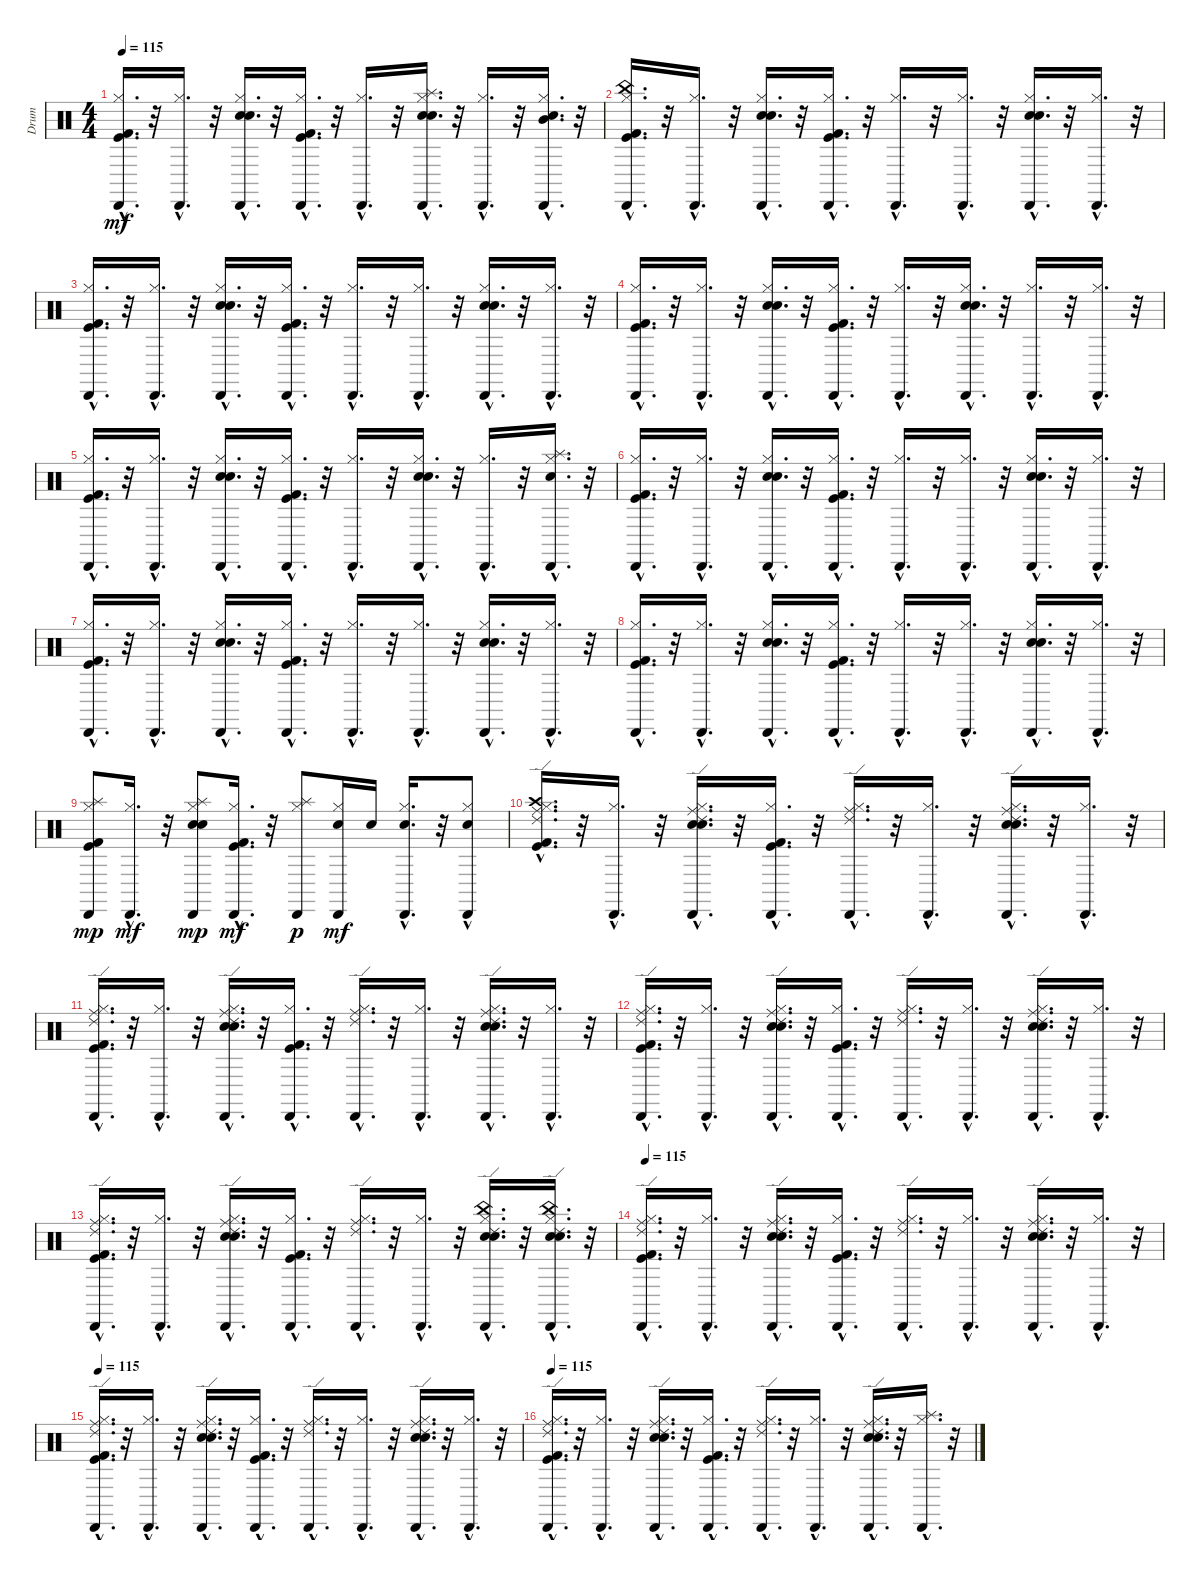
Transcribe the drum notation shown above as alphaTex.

\track ("Drum" "Drum") {instrument percussion}
\staff {score}
\articulation defaults
\ts (4 4)
\tempo 115
\clef neutral
\ks c
("Cabasa (hit)"{hac} "Kick (hit) 2"{hac} "Kick (hit)"{hac} "Hi-Hat (closed)"{hac}).16{d dy mf} r.32 ("Cabasa (hit)"{hac} "Hi-Hat (closed)"{hac}).16{d} r.32 ("Cabasa (hit)"{hac} "Electric Snare (hit)"{hac} "Snare (hit) 2"{hac} "Hi-Hat (closed)"{hac}).16{d} r.32 ("Cabasa (hit)"{hac} "Kick (hit) 2"{hac} "Kick (hit)"{hac} "Hi-Hat (closed)"{hac}).16{d} r.32 ("Cabasa (hit)"{hac} "Hi-Hat (closed)"{hac}).16{d} r.32 ("Splash (hit)"{hac} "Cabasa (hit)"{hac} "Electric Snare (hit)"{hac} "Snare (hit) 2"{hac} "Hi-Hat (closed)"{hac}).16{d} r.32 ("Cabasa (hit)"{hac} "Hi-Hat (closed)"{hac}).16{d} r.32 ("Mid Tom (hit)"{hac} "Cabasa (hit)"{hac} "Hi-Hat (closed)"{hac} "Snare (hit) 2"{hac}).16{d} r.32 |
("China (hit)"{hac} "Hi-Hat (closed)"{hac} "Kick (hit)"{hac} "Kick (hit) 2"{hac} "Cabasa (hit)"{hac}).16{d} r.32 ("Hi-Hat (closed)"{hac} "Cabasa (hit)"{hac}).16{d} r.32 ("Hi-Hat (closed)"{hac} "Snare (hit) 2"{hac} "Electric Snare (hit)"{hac} "Cabasa (hit)"{hac}).16{d} r.32 ("Hi-Hat (closed)"{hac} "Kick (hit)"{hac} "Kick (hit) 2"{hac} "Cabasa (hit)"{hac}).16{d} r.32 ("Hi-Hat (closed)"{hac} "Cabasa (hit)"{hac}).16{d} r.32 ("Hi-Hat (closed)"{hac} "Cabasa (hit)"{hac}).16{d} r.32 ("Snare (hit) 2"{hac} "Electric Snare (hit)"{hac} "Hi-Hat (closed)"{hac} "Cabasa (hit)"{hac}).16{d} r.32 ("Hi-Hat (closed)"{hac} "Cabasa (hit)"{hac}).16{d} r.32 |
("Cabasa (hit)"{hac} "Kick (hit) 2"{hac} "Kick (hit)"{hac} "Hi-Hat (closed)"{hac}).16{d} r.32 ("Cabasa (hit)"{hac} "Hi-Hat (closed)"{hac}).16{d} r.32 ("Cabasa (hit)"{hac} "Electric Snare (hit)"{hac} "Snare (hit) 2"{hac} "Hi-Hat (closed)"{hac}).16{d} r.32 ("Cabasa (hit)"{hac} "Kick (hit) 2"{hac} "Kick (hit)"{hac} "Hi-Hat (closed)"{hac}).16{d} r.32 ("Cabasa (hit)"{hac} "Hi-Hat (closed)"{hac}).16{d} r.32 ("Cabasa (hit)"{hac} "Hi-Hat (closed)"{hac}).16{d} r.32 ("Snare (hit) 2"{hac} "Electric Snare (hit)"{hac} "Cabasa (hit)"{hac} "Hi-Hat (closed)"{hac}).16{d} r.32 ("Cabasa (hit)"{hac} "Hi-Hat (closed)"{hac}).16{d} r.32 |
("Cabasa (hit)"{hac} "Kick (hit) 2"{hac} "Kick (hit)"{hac} "Hi-Hat (closed)"{hac}).16{d} r.32 ("Cabasa (hit)"{hac} "Hi-Hat (closed)"{hac}).16{d} r.32 ("Cabasa (hit)"{hac} "Electric Snare (hit)"{hac} "Snare (hit) 2"{hac} "Hi-Hat (closed)"{hac}).16{d} r.32 ("Cabasa (hit)"{hac} "Kick (hit) 2"{hac} "Kick (hit)"{hac} "Hi-Hat (closed)"{hac}).16{d} r.32 ("Cabasa (hit)"{hac} "Hi-Hat (closed)"{hac}).16{d} r.32 ("Cabasa (hit)"{hac} "Electric Snare (hit)"{hac} "Snare (hit) 2"{hac} "Hi-Hat (closed)"{hac}).16{d} r.32 ("Cabasa (hit)"{hac} "Hi-Hat (closed)"{hac}).16{d} r.32 ("Cabasa (hit)"{hac} "Hi-Hat (closed)"{hac}).16{d} r.32 |
("Cabasa (hit)"{hac} "Kick (hit) 2"{hac} "Kick (hit)"{hac} "Hi-Hat (closed)"{hac}).16{d} r.32 ("Cabasa (hit)"{hac} "Hi-Hat (closed)"{hac}).16{d} r.32 ("Cabasa (hit)"{hac} "Electric Snare (hit)"{hac} "Snare (hit) 2"{hac} "Hi-Hat (closed)"{hac}).16{d} r.32 ("Cabasa (hit)"{hac} "Kick (hit) 2"{hac} "Kick (hit)"{hac} "Hi-Hat (closed)"{hac}).16{d} r.32 ("Cabasa (hit)"{hac} "Hi-Hat (closed)"{hac}).16{d} r.32 ("Cabasa (hit)"{hac} "Electric Snare (hit)"{hac} "Snare (hit) 2"{hac} "Hi-Hat (closed)"{hac}).16{d} r.32 ("Cabasa (hit)"{hac} "Hi-Hat (closed)"{hac}).16{d} r.32 ("Splash (hit)"{hac} "Cabasa (hit)"{hac} "Hi-Hat (closed)"{hac} "Snare (hit) 2"{hac}).16{d} r.32 |
("Kick (hit) 2"{hac} "Kick (hit)"{hac} "Cabasa (hit)"{hac} "Hi-Hat (closed)"{hac}).16{d} r.32 ("Hi-Hat (closed)"{hac} "Cabasa (hit)"{hac}).16{d} r.32 ("Snare (hit) 2"{hac} "Hi-Hat (closed)"{hac} "Cabasa (hit)"{hac} "Electric Snare (hit)"{hac}).16{d} r.32 ("Cabasa (hit)"{hac} "Kick (hit) 2"{hac} "Hi-Hat (closed)"{hac} "Kick (hit)"{hac}).16{d} r.32 ("Cabasa (hit)"{hac} "Hi-Hat (closed)"{hac}).16{d} r.32 ("Hi-Hat (closed)"{hac} "Cabasa (hit)"{hac}).16{d} r.32 ("Snare (hit) 2"{hac} "Hi-Hat (closed)"{hac} "Cabasa (hit)"{hac} "Electric Snare (hit)"{hac}).16{d} r.32 ("Cabasa (hit)"{hac} "Hi-Hat (closed)"{hac}).16{d} r.32 |
("Hi-Hat (closed)"{hac} "Kick (hit)"{hac} "Kick (hit) 2"{hac} "Cabasa (hit)"{hac}).16{d} r.32 ("Hi-Hat (closed)"{hac} "Cabasa (hit)"{hac}).16{d} r.32 ("Hi-Hat (closed)"{hac} "Snare (hit) 2"{hac} "Electric Snare (hit)"{hac} "Cabasa (hit)"{hac}).16{d} r.32 ("Hi-Hat (closed)"{hac} "Kick (hit)"{hac} "Kick (hit) 2"{hac} "Cabasa (hit)"{hac}).16{d} r.32 ("Hi-Hat (closed)"{hac} "Cabasa (hit)"{hac}).16{d} r.32 ("Hi-Hat (closed)"{hac} "Cabasa (hit)"{hac}).16{d} r.32 ("Hi-Hat (closed)"{hac} "Cabasa (hit)"{hac} "Electric Snare (hit)"{hac} "Snare (hit) 2"{hac}).16{d} r.32 ("Hi-Hat (closed)"{hac} "Cabasa (hit)"{hac}).16{d} r.32 |
("Cabasa (hit)"{hac} "Kick (hit)"{hac} "Hi-Hat (closed)"{hac} "Kick (hit) 2"{hac}).16{d} r.32 ("Cabasa (hit)"{hac} "Hi-Hat (closed)"{hac}).16{d} r.32 ("Hi-Hat (closed)"{hac} "Snare (hit) 2"{hac} "Cabasa (hit)"{hac} "Electric Snare (hit)"{hac}).16{d} r.32 ("Kick (hit) 2"{hac} "Cabasa (hit)"{hac} "Hi-Hat (closed)"{hac} "Kick (hit)"{hac}).16{d} r.32 ("Hi-Hat (closed)"{hac} "Cabasa (hit)"{hac}).16{d} r.32 ("Hi-Hat (closed)"{hac} "Cabasa (hit)"{hac}).16{d} r.32 ("Snare (hit) 2"{hac} "Hi-Hat (closed)"{hac} "Electric Snare (hit)"{hac} "Cabasa (hit)"{hac}).16{d} r.32 ("Cabasa (hit)"{hac} "Hi-Hat (closed)"{hac}).16{d} r.32 |
("Splash (hit)" "Kick (hit)" "Cabasa (hit)" "Hi-Hat (closed)" "Kick (hit) 2").8{dy mp} ("Hi-Hat (closed)"{hac} "Cabasa (hit)"{hac}).16{d dy mf} r.32 ("Splash (hit)" "Electric Snare (hit)" "Cabasa (hit)" "Hi-Hat (closed)" "Snare (hit) 2").8{dy mp} ("Hi-Hat (closed)"{hac} "Cabasa (hit)"{hac} "Kick (hit)"{hac} "Kick (hit) 2"{hac}).16{d dy mf} r.32 ("Hi-Hat (closed)" "Cabasa (hit)" "Splash (hit)").8{dy p} ("Snare (hit) 2" "Hi-Hat (closed)" "Cabasa (hit)").16{dy mf} "Snare (hit) 2".16 ("Snare (hit) 2"{hac} "Cabasa (hit)"{hac} "Hi-Hat (closed)"{hac}).16{d} r.32 ("Hi-Hat (closed)"{hac} "Snare (hit) 2"{hac} "Cabasa (hit)"{hac}).8 |
("Ride (middle)"{hac} "Ride (edge) 2"{hac} "Crash high (hit)"{hac} "Hi-Hat (closed)"{hac} "Kick (hit)"{hac} "Kick (hit) 2"{hac}).16{d} r.32 ("Hi-Hat (closed)"{hac} "Cabasa (hit)"{hac}).16{d} r.32 ("Ride (middle)"{hac} "Ride (edge) 2"{hac} "Hi-Hat (closed)"{hac} "Snare (hit) 2"{hac} "Electric Snare (hit)"{hac} "Cabasa (hit)"{hac}).16{d} r.32 ("Hi-Hat (closed)"{hac} "Kick (hit)"{hac} "Kick (hit) 2"{hac} "Cabasa (hit)"{hac}).16{d} r.32 ("Ride (middle)"{hac} "Ride (edge) 2"{hac} "Hi-Hat (closed)"{hac} "Cabasa (hit)"{hac}).16{d} r.32 ("Hi-Hat (closed)"{hac} "Cabasa (hit)"{hac}).16{d} r.32 ("Ride (middle)"{hac} "Ride (edge) 2"{hac} "Snare (hit) 2"{hac} "Electric Snare (hit)"{hac} "Hi-Hat (closed)"{hac} "Cabasa (hit)"{hac}).16{d} r.32 ("Hi-Hat (closed)"{hac} "Cabasa (hit)"{hac}).16{d} r.32 |
("Cabasa (hit)"{hac} "Kick (hit) 2"{hac} "Kick (hit)"{hac} "Hi-Hat (closed)"{hac} "Ride (edge) 2"{hac} "Ride (middle)"{hac}).16{d} r.32 ("Cabasa (hit)"{hac} "Hi-Hat (closed)"{hac}).16{d} r.32 ("Cabasa (hit)"{hac} "Electric Snare (hit)"{hac} "Snare (hit) 2"{hac} "Hi-Hat (closed)"{hac} "Ride (edge) 2"{hac} "Ride (middle)"{hac}).16{d} r.32 ("Cabasa (hit)"{hac} "Kick (hit) 2"{hac} "Kick (hit)"{hac} "Hi-Hat (closed)"{hac}).16{d} r.32 ("Cabasa (hit)"{hac} "Hi-Hat (closed)"{hac} "Ride (edge) 2"{hac} "Ride (middle)"{hac}).16{d} r.32 ("Cabasa (hit)"{hac} "Hi-Hat (closed)"{hac}).16{d} r.32 ("Cabasa (hit)"{hac} "Hi-Hat (closed)"{hac} "Electric Snare (hit)"{hac} "Snare (hit) 2"{hac} "Ride (edge) 2"{hac} "Ride (middle)"{hac}).16{d} r.32 ("Cabasa (hit)"{hac} "Hi-Hat (closed)"{hac}).16{d} r.32 |
("Ride (middle)"{hac} "Ride (edge) 2"{hac} "Hi-Hat (closed)"{hac} "Kick (hit)"{hac} "Kick (hit) 2"{hac} "Cabasa (hit)"{hac}).16{d} r.32 ("Hi-Hat (closed)"{hac} "Cabasa (hit)"{hac}).16{d} r.32 ("Ride (middle)"{hac} "Ride (edge) 2"{hac} "Hi-Hat (closed)"{hac} "Snare (hit) 2"{hac} "Electric Snare (hit)"{hac} "Cabasa (hit)"{hac}).16{d} r.32 ("Hi-Hat (closed)"{hac} "Kick (hit)"{hac} "Kick (hit) 2"{hac} "Cabasa (hit)"{hac}).16{d} r.32 ("Ride (middle)"{hac} "Ride (edge) 2"{hac} "Hi-Hat (closed)"{hac} "Cabasa (hit)"{hac}).16{d} r.32 ("Hi-Hat (closed)"{hac} "Cabasa (hit)"{hac}).16{d} r.32 ("Ride (middle)"{hac} "Ride (edge) 2"{hac} "Snare (hit) 2"{hac} "Electric Snare (hit)"{hac} "Hi-Hat (closed)"{hac} "Cabasa (hit)"{hac}).16{d} r.32 ("Hi-Hat (closed)"{hac} "Cabasa (hit)"{hac}).16{d} r.32 |
("Ride (middle)"{hac} "Cabasa (hit)"{hac} "Kick (hit) 2"{hac} "Ride (edge) 2"{hac} "Kick (hit)"{hac} "Hi-Hat (closed)"{hac}).16{d} r.32 ("Hi-Hat (closed)"{hac} "Cabasa (hit)"{hac}).16{d} r.32 ("Snare (hit) 2"{hac} "Ride (edge) 2"{hac} "Cabasa (hit)"{hac} "Hi-Hat (closed)"{hac} "Ride (middle)"{hac} "Electric Snare (hit)"{hac}).16{d} r.32 ("Kick (hit) 2"{hac} "Hi-Hat (closed)"{hac} "Kick (hit)"{hac} "Cabasa (hit)"{hac}).16{d} r.32 ("Ride (edge) 2"{hac} "Hi-Hat (closed)"{hac} "Ride (middle)"{hac} "Cabasa (hit)"{hac}).16{d} r.32 ("Hi-Hat (closed)"{hac} "Cabasa (hit)"{hac}).16{d} r.32 ("Snare (hit) 2"{hac} "China (hit)"{hac} "Hi-Hat (closed)"{hac} "Electric Snare (hit)"{hac} "Cabasa (hit)"{hac} "Ride (edge) 2"{hac}).16{d} r.32 ("Snare (hit) 2"{hac} "Hi-Hat (closed)"{hac} "China (hit)"{hac} "Electric Snare (hit)"{hac} "Ride (edge) 2"{hac} "Cabasa (hit)"{hac}).16{d} r.32 |
\tempo 115
("Cabasa (hit)"{hac} "Kick (hit) 2"{hac} "Kick (hit)"{hac} "Hi-Hat (closed)"{hac} "Ride (edge) 2"{hac} "Ride (middle)"{hac}).16{d} r.32 ("Cabasa (hit)"{hac} "Hi-Hat (closed)"{hac}).16{d} r.32 ("Cabasa (hit)"{hac} "Electric Snare (hit)"{hac} "Snare (hit) 2"{hac} "Hi-Hat (closed)"{hac} "Ride (edge) 2"{hac} "Ride (middle)"{hac}).16{d} r.32 ("Cabasa (hit)"{hac} "Kick (hit) 2"{hac} "Kick (hit)"{hac} "Hi-Hat (closed)"{hac}).16{d} r.32 ("Cabasa (hit)"{hac} "Hi-Hat (closed)"{hac} "Ride (edge) 2"{hac} "Ride (middle)"{hac}).16{d} r.32 ("Cabasa (hit)"{hac} "Hi-Hat (closed)"{hac}).16{d} r.32 ("Cabasa (hit)"{hac} "Hi-Hat (closed)"{hac} "Electric Snare (hit)"{hac} "Snare (hit) 2"{hac} "Ride (edge) 2"{hac} "Ride (middle)"{hac}).16{d} r.32 ("Cabasa (hit)"{hac} "Hi-Hat (closed)"{hac}).16{d} r.32 |
\tempo 115
("Ride (middle)"{hac} "Ride (edge) 2"{hac} "Hi-Hat (closed)"{hac} "Kick (hit)"{hac} "Kick (hit) 2"{hac} "Cabasa (hit)"{hac}).16{d} r.32 ("Hi-Hat (closed)"{hac} "Cabasa (hit)"{hac}).16{d} r.32 ("Ride (middle)"{hac} "Ride (edge) 2"{hac} "Hi-Hat (closed)"{hac} "Snare (hit) 2"{hac} "Electric Snare (hit)"{hac} "Cabasa (hit)"{hac}).16{d} r.32 ("Hi-Hat (closed)"{hac} "Kick (hit)"{hac} "Kick (hit) 2"{hac} "Cabasa (hit)"{hac}).16{d} r.32 ("Ride (middle)"{hac} "Ride (edge) 2"{hac} "Hi-Hat (closed)"{hac} "Cabasa (hit)"{hac}).16{d} r.32 ("Hi-Hat (closed)"{hac} "Cabasa (hit)"{hac}).16{d} r.32 ("Ride (middle)"{hac} "Ride (edge) 2"{hac} "Snare (hit) 2"{hac} "Electric Snare (hit)"{hac} "Hi-Hat (closed)"{hac} "Cabasa (hit)"{hac}).16{d} r.32 ("Hi-Hat (closed)"{hac} "Cabasa (hit)"{hac}).16{d} r.32 |
\tempo 115
("Cabasa (hit)"{hac} "Kick (hit) 2"{hac} "Kick (hit)"{hac} "Hi-Hat (closed)"{hac} "Ride (edge) 2"{hac} "Ride (middle)"{hac}).16{d} r.32 ("Cabasa (hit)"{hac} "Hi-Hat (closed)"{hac}).16{d} r.32 ("Cabasa (hit)"{hac} "Electric Snare (hit)"{hac} "Snare (hit) 2"{hac} "Hi-Hat (closed)"{hac} "Ride (edge) 2"{hac} "Ride (middle)"{hac}).16{d} r.32 ("Cabasa (hit)"{hac} "Kick (hit) 2"{hac} "Kick (hit)"{hac} "Hi-Hat (closed)"{hac}).16{d} r.32 ("Cabasa (hit)"{hac} "Hi-Hat (closed)"{hac} "Ride (edge) 2"{hac} "Ride (middle)"{hac}).16{d} r.32 ("Cabasa (hit)"{hac} "Hi-Hat (closed)"{hac}).16{d} r.32 ("Cabasa (hit)"{hac} "Hi-Hat (closed)"{hac} "Electric Snare (hit)"{hac} "Snare (hit) 2"{hac} "Ride (edge) 2"{hac} "Ride (middle)"{hac}).16{d} r.32 ("Splash (hit)"{hac} "Cabasa (hit)"{hac} "Hi-Hat (closed)"{hac}).16{d} r.32
